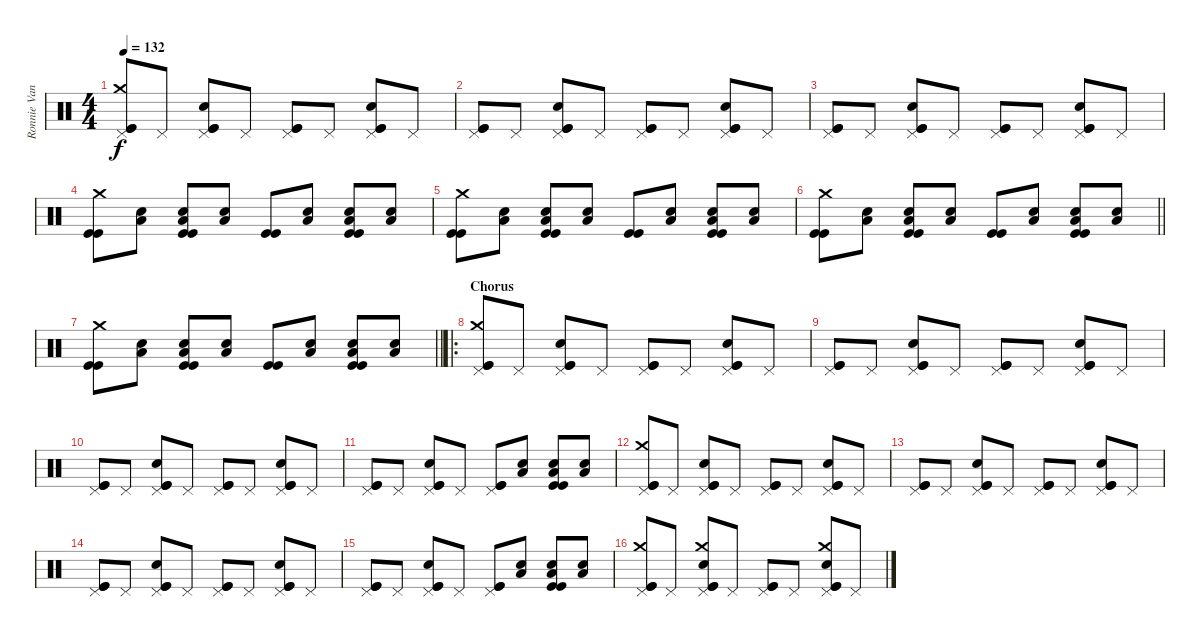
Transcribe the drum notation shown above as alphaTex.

\track ("Ronnie Vanucci" "Ronnie Van") {instrument percussion}
\staff {score}
\articulation defaults
\ts (4 4)
\tempo 132
\clef neutral
\ks c
("Pedal Hi-Hat (hit)" "Crash medium (hit)" "Kick (hit)" "Kick (hit)").8{dy f} "Pedal Hi-Hat (hit)".8 ("Pedal Hi-Hat (hit)" "Electric Snare (hit)" "Kick (hit)" "Kick (hit)").8 "Pedal Hi-Hat (hit)".8 ("Pedal Hi-Hat (hit)" "Kick (hit)" "Kick (hit)").8 "Pedal Hi-Hat (hit)".8 ("Pedal Hi-Hat (hit)" "Electric Snare (hit)" "Kick (hit)" "Kick (hit)").8 "Pedal Hi-Hat (hit)".8 |
("Pedal Hi-Hat (hit)" "Kick (hit)" "Kick (hit)").8 "Pedal Hi-Hat (hit)".8 ("Pedal Hi-Hat (hit)" "Electric Snare (hit)" "Kick (hit)" "Kick (hit)").8 "Pedal Hi-Hat (hit)".8 ("Pedal Hi-Hat (hit)" "Kick (hit)" "Kick (hit)").8 "Pedal Hi-Hat (hit)".8 ("Pedal Hi-Hat (hit)" "Electric Snare (hit)" "Kick (hit)" "Kick (hit)").8 "Pedal Hi-Hat (hit)".8 |
("Pedal Hi-Hat (hit)" "Kick (hit)" "Kick (hit)").8 "Pedal Hi-Hat (hit)".8 ("Pedal Hi-Hat (hit)" "Electric Snare (hit)" "Kick (hit)" "Kick (hit)").8 "Pedal Hi-Hat (hit)".8 ("Pedal Hi-Hat (hit)" "Kick (hit)" "Kick (hit)").8 "Pedal Hi-Hat (hit)".8 ("Pedal Hi-Hat (hit)" "Electric Snare (hit)" "Kick (hit)" "Kick (hit)").8 "Pedal Hi-Hat (hit)".8 |
("Crash medium (hit)" "Kick (hit)" "Kick (hit)").8 ("Electric Snare (hit)" "Low Floor Tom (hit)").8 ("Electric Snare (hit)" "Low Floor Tom (hit)" "Kick (hit)" "Kick (hit)").8 ("Electric Snare (hit)" "Low Floor Tom (hit)").8 ("Kick (hit)" "Kick (hit)").8 ("Electric Snare (hit)" "Low Floor Tom (hit)").8 ("Electric Snare (hit)" "Low Floor Tom (hit)" "Kick (hit)" "Kick (hit)").8 ("Electric Snare (hit)" "Low Floor Tom (hit)").8 |
("Crash medium (hit)" "Kick (hit)" "Kick (hit)").8 ("Electric Snare (hit)" "Low Floor Tom (hit)").8 ("Electric Snare (hit)" "Low Floor Tom (hit)" "Kick (hit)" "Kick (hit)").8 ("Electric Snare (hit)" "Low Floor Tom (hit)").8 ("Kick (hit)" "Kick (hit)").8 ("Electric Snare (hit)" "Low Floor Tom (hit)").8 ("Electric Snare (hit)" "Low Floor Tom (hit)" "Kick (hit)" "Kick (hit)").8 ("Electric Snare (hit)" "Low Floor Tom (hit)").8 |
\barLineRight lightlight
("Crash medium (hit)" "Kick (hit)" "Kick (hit)").8 ("Electric Snare (hit)" "Low Floor Tom (hit)").8 ("Electric Snare (hit)" "Low Floor Tom (hit)" "Kick (hit)" "Kick (hit)").8 ("Electric Snare (hit)" "Low Floor Tom (hit)").8 ("Kick (hit)" "Kick (hit)").8 ("Electric Snare (hit)" "Low Floor Tom (hit)").8 ("Electric Snare (hit)" "Low Floor Tom (hit)" "Kick (hit)" "Kick (hit)").8 ("Electric Snare (hit)" "Low Floor Tom (hit)").8 |
\section ("" "")
\barLineRight lightlight
("Crash medium (hit)" "Kick (hit)" "Kick (hit)").8 ("Electric Snare (hit)" "Low Floor Tom (hit)").8 ("Electric Snare (hit)" "Low Floor Tom (hit)" "Kick (hit)" "Kick (hit)").8 ("Electric Snare (hit)" "Low Floor Tom (hit)").8 ("Kick (hit)" "Kick (hit)").8 ("Electric Snare (hit)" "Low Floor Tom (hit)").8 ("Electric Snare (hit)" "Low Floor Tom (hit)" "Kick (hit)" "Kick (hit)").8 ("Electric Snare (hit)" "Low Floor Tom (hit)").8 |
\ro
\section ("" "Chorus")
("Pedal Hi-Hat (hit)" "Crash medium (hit)" "Kick (hit)" "Kick (hit)").8 "Pedal Hi-Hat (hit)".8 ("Pedal Hi-Hat (hit)" "Electric Snare (hit)" "Kick (hit)" "Kick (hit)").8 "Pedal Hi-Hat (hit)".8 ("Pedal Hi-Hat (hit)" "Kick (hit)" "Kick (hit)").8 "Pedal Hi-Hat (hit)".8 ("Pedal Hi-Hat (hit)" "Electric Snare (hit)" "Kick (hit)" "Kick (hit)").8 "Pedal Hi-Hat (hit)".8 |
("Pedal Hi-Hat (hit)" "Kick (hit)" "Kick (hit)").8 "Pedal Hi-Hat (hit)".8 ("Pedal Hi-Hat (hit)" "Electric Snare (hit)" "Kick (hit)" "Kick (hit)").8 "Pedal Hi-Hat (hit)".8 ("Pedal Hi-Hat (hit)" "Kick (hit)" "Kick (hit)").8 "Pedal Hi-Hat (hit)".8 ("Pedal Hi-Hat (hit)" "Electric Snare (hit)" "Kick (hit)" "Kick (hit)").8 "Pedal Hi-Hat (hit)".8 |
("Pedal Hi-Hat (hit)" "Kick (hit)" "Kick (hit)").8 "Pedal Hi-Hat (hit)".8 ("Pedal Hi-Hat (hit)" "Electric Snare (hit)" "Kick (hit)" "Kick (hit)").8 "Pedal Hi-Hat (hit)".8 ("Pedal Hi-Hat (hit)" "Kick (hit)" "Kick (hit)").8 "Pedal Hi-Hat (hit)".8 ("Pedal Hi-Hat (hit)" "Electric Snare (hit)" "Kick (hit)" "Kick (hit)").8 "Pedal Hi-Hat (hit)".8 |
("Pedal Hi-Hat (hit)" "Kick (hit)" "Kick (hit)").8 "Pedal Hi-Hat (hit)".8 ("Pedal Hi-Hat (hit)" "Electric Snare (hit)" "Kick (hit)" "Kick (hit)").8 "Pedal Hi-Hat (hit)".8 ("Pedal Hi-Hat (hit)" "Kick (hit)" "Kick (hit)").8 ("Low Floor Tom (hit)" "Electric Snare (hit)").8 ("Low Floor Tom (hit)" "Electric Snare (hit)" "Kick (hit)" "Kick (hit)").8 ("Low Floor Tom (hit)" "Electric Snare (hit)").8 |
("Pedal Hi-Hat (hit)" "Crash medium (hit)" "Kick (hit)" "Kick (hit)").8 "Pedal Hi-Hat (hit)".8 ("Pedal Hi-Hat (hit)" "Electric Snare (hit)" "Kick (hit)" "Kick (hit)").8 "Pedal Hi-Hat (hit)".8 ("Pedal Hi-Hat (hit)" "Kick (hit)" "Kick (hit)").8 "Pedal Hi-Hat (hit)".8 ("Pedal Hi-Hat (hit)" "Electric Snare (hit)" "Kick (hit)" "Kick (hit)").8 "Pedal Hi-Hat (hit)".8 |
("Pedal Hi-Hat (hit)" "Kick (hit)" "Kick (hit)").8 "Pedal Hi-Hat (hit)".8 ("Pedal Hi-Hat (hit)" "Electric Snare (hit)" "Kick (hit)" "Kick (hit)").8 "Pedal Hi-Hat (hit)".8 ("Pedal Hi-Hat (hit)" "Kick (hit)" "Kick (hit)").8 "Pedal Hi-Hat (hit)".8 ("Pedal Hi-Hat (hit)" "Electric Snare (hit)" "Kick (hit)" "Kick (hit)").8 "Pedal Hi-Hat (hit)".8 |
("Pedal Hi-Hat (hit)" "Kick (hit)" "Kick (hit)").8 "Pedal Hi-Hat (hit)".8 ("Pedal Hi-Hat (hit)" "Electric Snare (hit)" "Kick (hit)" "Kick (hit)").8 "Pedal Hi-Hat (hit)".8 ("Pedal Hi-Hat (hit)" "Kick (hit)" "Kick (hit)").8 "Pedal Hi-Hat (hit)".8 ("Pedal Hi-Hat (hit)" "Electric Snare (hit)" "Kick (hit)" "Kick (hit)").8 "Pedal Hi-Hat (hit)".8 |
("Pedal Hi-Hat (hit)" "Kick (hit)" "Kick (hit)").8 "Pedal Hi-Hat (hit)".8 ("Pedal Hi-Hat (hit)" "Electric Snare (hit)" "Kick (hit)" "Kick (hit)").8 "Pedal Hi-Hat (hit)".8 ("Pedal Hi-Hat (hit)" "Kick (hit)" "Kick (hit)").8 ("Low Floor Tom (hit)" "Electric Snare (hit)").8 ("Low Floor Tom (hit)" "Electric Snare (hit)" "Kick (hit)" "Kick (hit)").8 ("Low Floor Tom (hit)" "Electric Snare (hit)").8 |
("Pedal Hi-Hat (hit)" "Crash medium (hit)" "Kick (hit)" "Kick (hit)").8 "Pedal Hi-Hat (hit)".8 ("Pedal Hi-Hat (hit)" "Crash medium (hit)" "Electric Snare (hit)" "Kick (hit)" "Kick (hit)").8 "Pedal Hi-Hat (hit)".8 ("Pedal Hi-Hat (hit)" "Kick (hit)" "Kick (hit)").8 "Pedal Hi-Hat (hit)".8 ("Pedal Hi-Hat (hit)" "Crash medium (hit)" "Electric Snare (hit)" "Kick (hit)" "Kick (hit)").8 "Pedal Hi-Hat (hit)".8
